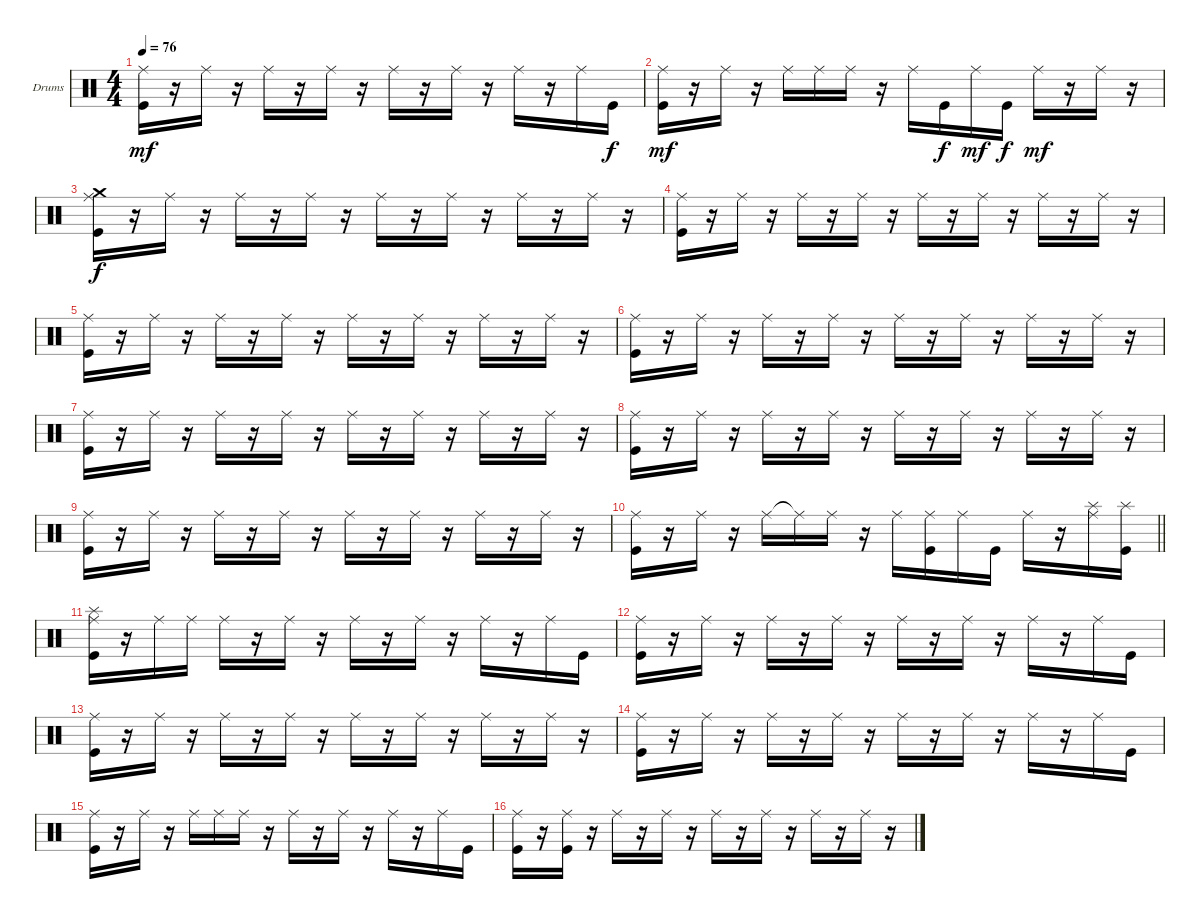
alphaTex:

\bracketExtendMode groupsimilarinstruments
\firstSystemTrackNameOrientation horizontal
\otherSystemsTrackNameOrientation horizontal
\track ("Drumkit" "Drums") {instrument percussion}
\staff {score}
\articulation defaults
\ts (4 4)
\tempo 76
\clef neutral
\ks c
("Ride (middle)" "Kick (hit)").16{dy mf} r.16 "Ride (middle)".16 r.16 "Ride (middle)".16 r.16 "Ride (middle)".16 r.16 "Ride (middle)".16 r.16 "Ride (middle)".16 r.16 "Ride (middle)".16 r.16 "Ride (middle)".16 "Kick (hit)".16{dy f} |
("Ride (middle)" "Kick (hit)").16{dy mf} r.16 "Ride (middle)".16 r.16 "Ride (middle)".16 "Ride (middle)".16 "Ride (middle)".16 r.16 "Ride (middle)".16 "Kick (hit)".16{dy f} "Ride (middle)".16{dy mf} "Kick (hit)".16{dy f} "Ride (middle)".16{dy mf} r.16 "Ride (middle)".16 r.16 |
("Ride (middle)" "Crash medium (hit)" "Kick (hit)").16{dy f} r.16 "Ride (middle)".16 r.16 "Ride (middle)".16 r.16 "Ride (middle)".16 r.16 "Ride (middle)".16 r.16 "Ride (middle)".16 r.16 "Ride (middle)".16 r.16 "Ride (middle)".16 r.16 |
("Ride (middle)" "Kick (hit)").16 r.16 "Ride (middle)".16 r.16 "Ride (middle)".16 r.16 "Ride (middle)".16 r.16 "Ride (middle)".16 r.16 "Ride (middle)".16 r.16 "Ride (middle)".16 r.16 "Ride (middle)".16 r.16 |
("Ride (middle)" "Kick (hit)").16 r.16 "Ride (middle)".16 r.16 "Ride (middle)".16 r.16 "Ride (middle)".16 r.16 "Ride (middle)".16 r.16 "Ride (middle)".16 r.16 "Ride (middle)".16 r.16 "Ride (middle)".16 r.16 |
("Ride (middle)" "Kick (hit)").16 r.16 "Ride (middle)".16 r.16 "Ride (middle)".16 r.16 "Ride (middle)".16 r.16 "Ride (middle)".16 r.16 "Ride (middle)".16 r.16 "Ride (middle)".16 r.16 "Ride (middle)".16 r.16 |
("Ride (middle)" "Kick (hit)").16 r.16 "Ride (middle)".16 r.16 "Ride (middle)".16 r.16 "Ride (middle)".16 r.16 "Ride (middle)".16 r.16 "Ride (middle)".16 r.16 "Ride (middle)".16 r.16 "Ride (middle)".16 r.16 |
("Ride (middle)" "Kick (hit)").16 r.16 "Ride (middle)".16 r.16 "Ride (middle)".16 r.16 "Ride (middle)".16 r.16 "Ride (middle)".16 r.16 "Ride (middle)".16 r.16 "Ride (middle)".16 r.16 "Ride (middle)".16 r.16 |
("Ride (middle)" "Kick (hit)").16 r.16 "Ride (middle)".16 r.16 "Ride (middle)".16 r.16 "Ride (middle)".16 r.16 "Ride (middle)".16 r.16 "Ride (middle)".16 r.16 "Ride (middle)".16 r.16 "Ride (middle)".16 r.16 |
\barLineRight lightlight
("Ride (middle)" "Kick (hit)").16 r.16 "Ride (middle)".16 r.16 "Ride (middle)".16 "Ride (middle)"{t}.16 "Ride (middle)".16 r.16 "Ride (middle)".16 ("Ride (middle)" "Kick (hit)").16 "Ride (middle)".16 "Kick (hit)".16 "Ride (middle)".16 r.16 ("Ride (middle)" "Splash (hit)").16 ("Splash (hit)" "Kick (hit)").16 |
("Ride (middle)" "Splash (hit)" "Kick (hit)").16 r.16 "Ride (middle)".16 "Ride (middle)".16 "Ride (middle)".16 r.16 "Ride (middle)".16 r.16 "Ride (middle)".16 r.16 "Ride (middle)".16 r.16 "Ride (middle)".16 r.16 "Ride (middle)".16 "Kick (hit)".16 |
("Ride (middle)" "Kick (hit)").16 r.16 "Ride (middle)".16 r.16 "Ride (middle)".16 r.16 "Ride (middle)".16 r.16 "Ride (middle)".16 r.16 "Ride (middle)".16 r.16 "Ride (middle)".16 r.16 "Ride (middle)".16 "Kick (hit)".16 |
("Ride (middle)" "Kick (hit)").16 r.16 "Ride (middle)".16 r.16 "Ride (middle)".16 r.16 "Ride (middle)".16 r.16 "Ride (middle)".16 r.16 "Ride (middle)".16 r.16 "Ride (middle)".16 r.16 "Ride (middle)".16 r.16 |
("Ride (middle)" "Kick (hit)").16 r.16 "Ride (middle)".16 r.16 "Ride (middle)".16 r.16 "Ride (middle)".16 r.16 "Ride (middle)".16 r.16 "Ride (middle)".16 r.16 "Ride (middle)".16 r.16 "Ride (middle)".16 "Kick (hit)".16 |
("Ride (middle)" "Kick (hit)").16 r.16 "Ride (middle)".16 r.16 "Ride (middle)".16 "Ride (middle)".16 "Ride (middle)".16 r.16 "Ride (middle)".16 r.16 "Ride (middle)".16 r.16 "Ride (middle)".16 r.16 "Ride (middle)".16 "Kick (hit)".16 |
("Ride (middle)" "Kick (hit)").16 r.16 ("Ride (middle)" "Kick (hit)").16 r.16 "Ride (middle)".16 r.16 "Ride (middle)".16 r.16 "Ride (middle)".16 r.16 "Ride (middle)".16 r.16 "Ride (middle)".16 r.16 "Ride (middle)".16 r.16
